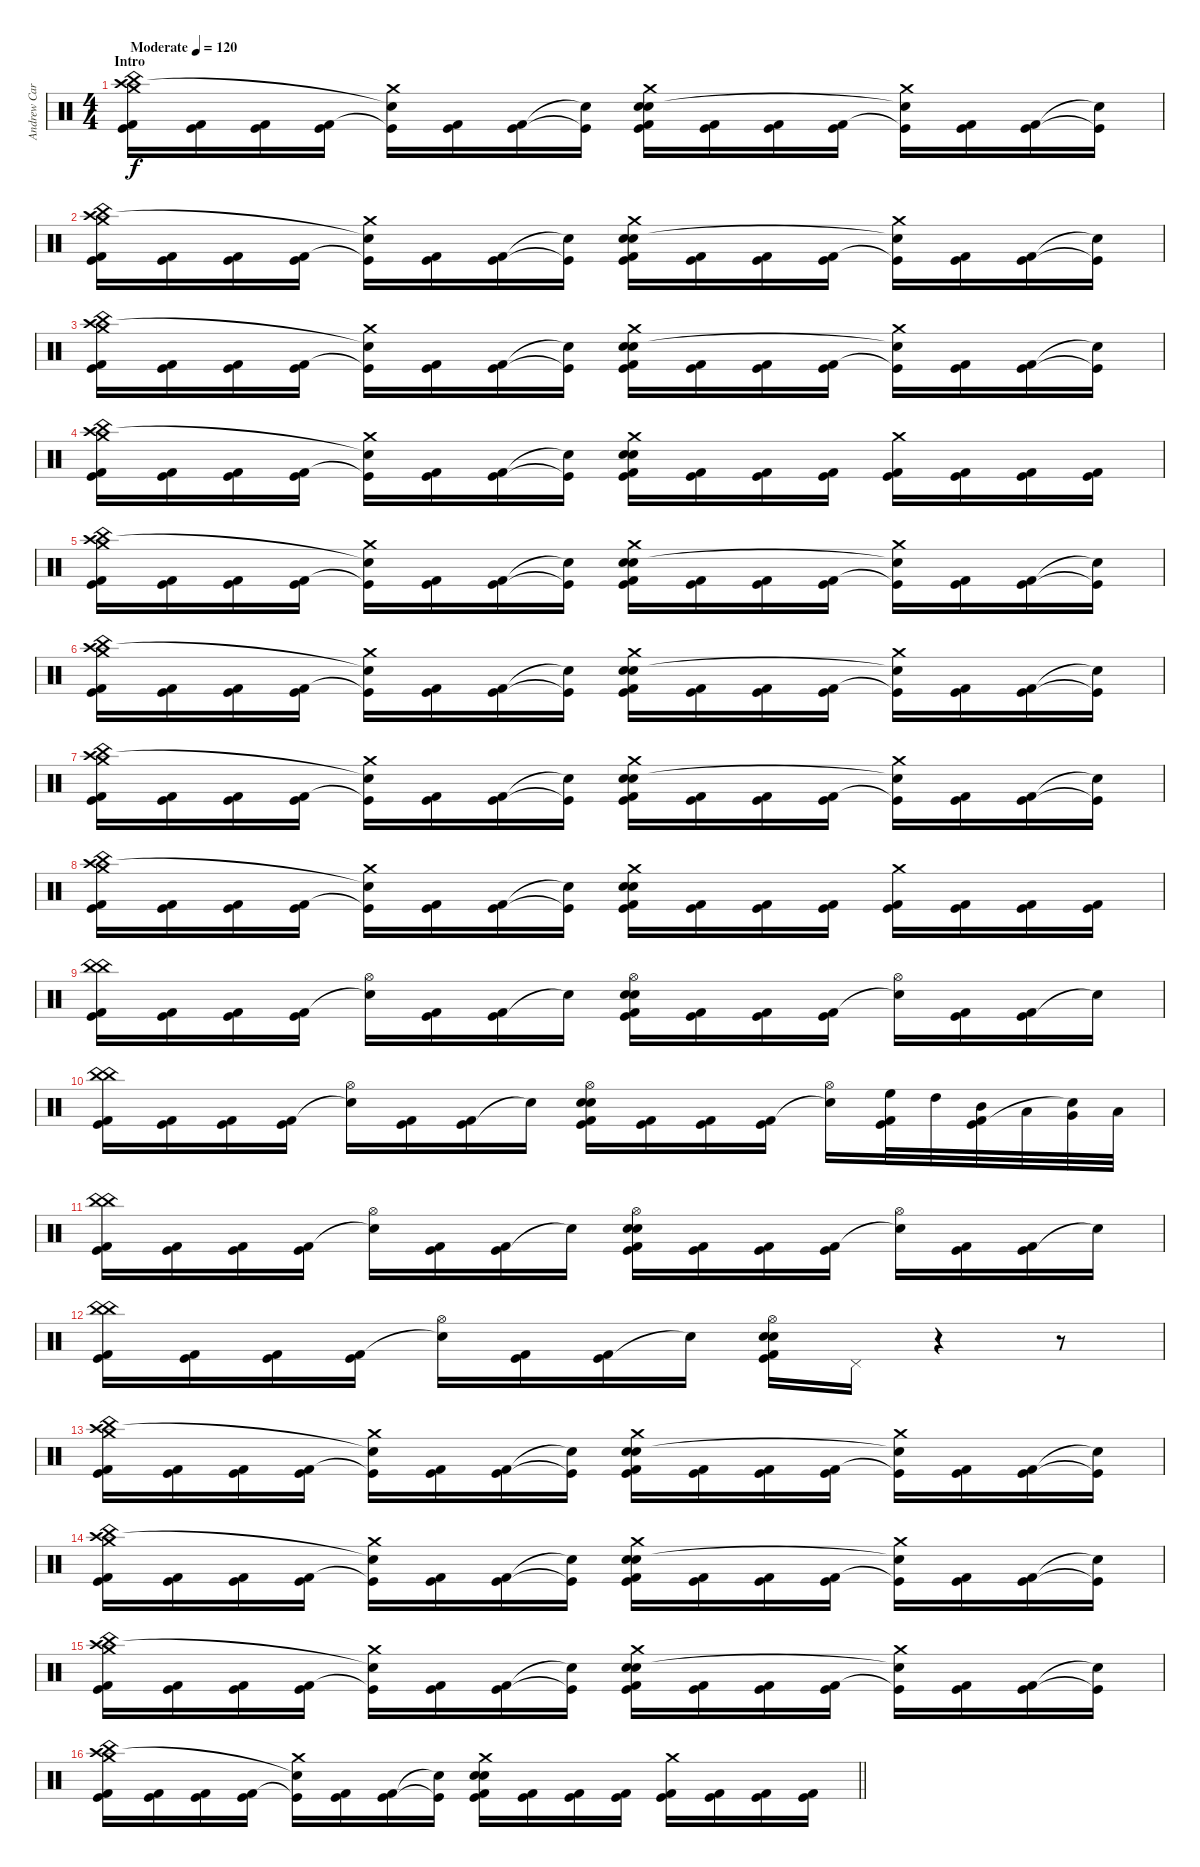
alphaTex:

\track ("Andrew Carlston" "Andrew Car") {instrument percussion}
\staff {score}
\articulation defaults
\ts (4 4)
\section ("" "Intro")
\tempo (120 "Moderate")
\clef neutral
\ks c
("China (hit)" "Crash medium (hit)" "Crash high (hit)" "Kick (hit)" "Kick (hit) 2").16{dy f} ("Kick (hit)" "Kick (hit) 2").16 ("Kick (hit)" "Kick (hit) 2").16 ("Kick (hit)" "Kick (hit) 2").16 ("Crash medium (hit)" "Kick (hit)"{t} "Snare (hit)"{t}).16 ("Kick (hit)" "Kick (hit) 2").16 ("Kick (hit)" "Kick (hit) 2").16 ("Kick (hit)"{t} "Snare (hit)"{t}).16 ("Crash medium (hit)" "Electric Snare (hit)" "Snare (hit) 2" "Kick (hit)" "Kick (hit) 2").16 ("Kick (hit)" "Kick (hit) 2").16 ("Kick (hit)" "Kick (hit) 2").16 ("Kick (hit)" "Kick (hit) 2").16 ("Crash medium (hit)" "Kick (hit)"{t} "Snare (hit)"{t}).16 ("Kick (hit)" "Kick (hit) 2").16 ("Kick (hit)" "Kick (hit) 2").16 ("Kick (hit)"{t} "Snare (hit)"{t}).16 |
("China (hit)" "Crash medium (hit)" "Crash high (hit)" "Kick (hit)" "Kick (hit) 2").16 ("Kick (hit)" "Kick (hit) 2").16 ("Kick (hit)" "Kick (hit) 2").16 ("Kick (hit)" "Kick (hit) 2").16 ("Crash medium (hit)" "Kick (hit)"{t} "Snare (hit)"{t}).16 ("Kick (hit)" "Kick (hit) 2").16 ("Kick (hit)" "Kick (hit) 2").16 ("Kick (hit)"{t} "Snare (hit)"{t}).16 ("Crash medium (hit)" "Electric Snare (hit)" "Snare (hit) 2" "Kick (hit)" "Kick (hit) 2").16 ("Kick (hit)" "Kick (hit) 2").16 ("Kick (hit)" "Kick (hit) 2").16 ("Kick (hit)" "Kick (hit) 2").16 ("Crash medium (hit)" "Kick (hit)"{t} "Snare (hit)"{t}).16 ("Kick (hit)" "Kick (hit) 2").16 ("Kick (hit)" "Kick (hit) 2").16 ("Kick (hit)"{t} "Snare (hit)"{t}).16 |
("China (hit)" "Crash medium (hit)" "Crash high (hit)" "Kick (hit)" "Kick (hit) 2").16 ("Kick (hit)" "Kick (hit) 2").16 ("Kick (hit)" "Kick (hit) 2").16 ("Kick (hit)" "Kick (hit) 2").16 ("Crash medium (hit)" "Kick (hit)"{t} "Snare (hit)"{t}).16 ("Kick (hit)" "Kick (hit) 2").16 ("Kick (hit)" "Kick (hit) 2").16 ("Kick (hit)"{t} "Snare (hit)"{t}).16 ("Crash medium (hit)" "Electric Snare (hit)" "Snare (hit) 2" "Kick (hit)" "Kick (hit) 2").16 ("Kick (hit)" "Kick (hit) 2").16 ("Kick (hit)" "Kick (hit) 2").16 ("Kick (hit)" "Kick (hit) 2").16 ("Crash medium (hit)" "Kick (hit)"{t} "Snare (hit)"{t}).16 ("Kick (hit)" "Kick (hit) 2").16 ("Kick (hit)" "Kick (hit) 2").16 ("Kick (hit)"{t} "Snare (hit)"{t}).16 |
("China (hit)" "Crash medium (hit)" "Crash high (hit)" "Kick (hit)" "Kick (hit) 2").16 ("Kick (hit)" "Kick (hit) 2").16 ("Kick (hit)" "Kick (hit) 2").16 ("Kick (hit)" "Kick (hit) 2").16 ("Crash medium (hit)" "Kick (hit)"{t} "Snare (hit)"{t}).16 ("Kick (hit)" "Kick (hit) 2").16 ("Kick (hit)" "Kick (hit) 2").16 ("Kick (hit)"{t} "Snare (hit)"{t}).16 ("Crash medium (hit)" "Electric Snare (hit)" "Snare (hit) 2" "Kick (hit)" "Kick (hit) 2").16 ("Kick (hit)" "Kick (hit) 2").16 ("Kick (hit)" "Kick (hit) 2").16 ("Kick (hit)" "Kick (hit) 2").16 ("Crash medium (hit)" "Kick (hit)" "Kick (hit) 2").16 ("Kick (hit)" "Kick (hit) 2").16 ("Kick (hit)" "Kick (hit) 2").16 ("Kick (hit)" "Kick (hit) 2").16 |
("China (hit)" "Crash medium (hit)" "Crash high (hit)" "Kick (hit)" "Kick (hit) 2").16 ("Kick (hit)" "Kick (hit) 2").16 ("Kick (hit)" "Kick (hit) 2").16 ("Kick (hit)" "Kick (hit) 2").16 ("Crash medium (hit)" "Kick (hit)"{t} "Snare (hit)"{t}).16 ("Kick (hit)" "Kick (hit) 2").16 ("Kick (hit)" "Kick (hit) 2").16 ("Kick (hit)"{t} "Snare (hit)"{t}).16 ("Crash medium (hit)" "Electric Snare (hit)" "Snare (hit) 2" "Kick (hit)" "Kick (hit) 2").16 ("Kick (hit)" "Kick (hit) 2").16 ("Kick (hit)" "Kick (hit) 2").16 ("Kick (hit)" "Kick (hit) 2").16 ("Crash medium (hit)" "Kick (hit)"{t} "Snare (hit)"{t}).16 ("Kick (hit)" "Kick (hit) 2").16 ("Kick (hit)" "Kick (hit) 2").16 ("Kick (hit)"{t} "Snare (hit)"{t}).16 |
("China (hit)" "Crash medium (hit)" "Crash high (hit)" "Kick (hit)" "Kick (hit) 2").16 ("Kick (hit)" "Kick (hit) 2").16 ("Kick (hit)" "Kick (hit) 2").16 ("Kick (hit)" "Kick (hit) 2").16 ("Crash medium (hit)" "Kick (hit)"{t} "Snare (hit)"{t}).16 ("Kick (hit)" "Kick (hit) 2").16 ("Kick (hit)" "Kick (hit) 2").16 ("Kick (hit)"{t} "Snare (hit)"{t}).16 ("Crash medium (hit)" "Electric Snare (hit)" "Snare (hit) 2" "Kick (hit)" "Kick (hit) 2").16 ("Kick (hit)" "Kick (hit) 2").16 ("Kick (hit)" "Kick (hit) 2").16 ("Kick (hit)" "Kick (hit) 2").16 ("Crash medium (hit)" "Kick (hit)"{t} "Snare (hit)"{t}).16 ("Kick (hit)" "Kick (hit) 2").16 ("Kick (hit)" "Kick (hit) 2").16 ("Kick (hit)"{t} "Snare (hit)"{t}).16 |
("China (hit)" "Crash medium (hit)" "Crash high (hit)" "Kick (hit)" "Kick (hit) 2").16 ("Kick (hit)" "Kick (hit) 2").16 ("Kick (hit)" "Kick (hit) 2").16 ("Kick (hit)" "Kick (hit) 2").16 ("Crash medium (hit)" "Kick (hit)"{t} "Snare (hit)"{t}).16 ("Kick (hit)" "Kick (hit) 2").16 ("Kick (hit)" "Kick (hit) 2").16 ("Kick (hit)"{t} "Snare (hit)"{t}).16 ("Crash medium (hit)" "Electric Snare (hit)" "Snare (hit) 2" "Kick (hit)" "Kick (hit) 2").16 ("Kick (hit)" "Kick (hit) 2").16 ("Kick (hit)" "Kick (hit) 2").16 ("Kick (hit)" "Kick (hit) 2").16 ("Crash medium (hit)" "Kick (hit)"{t} "Snare (hit)"{t}).16 ("Kick (hit)" "Kick (hit) 2").16 ("Kick (hit)" "Kick (hit) 2").16 ("Kick (hit)"{t} "Snare (hit)"{t}).16 |
("China (hit)" "Crash medium (hit)" "Crash high (hit)" "Kick (hit)" "Kick (hit) 2").16 ("Kick (hit)" "Kick (hit) 2").16 ("Kick (hit)" "Kick (hit) 2").16 ("Kick (hit)" "Kick (hit) 2").16 ("Crash medium (hit)" "Kick (hit)"{t} "Snare (hit)"{t}).16 ("Kick (hit)" "Kick (hit) 2").16 ("Kick (hit)" "Kick (hit) 2").16 ("Kick (hit)"{t} "Snare (hit)"{t}).16 ("Crash medium (hit)" "Electric Snare (hit)" "Snare (hit) 2" "Kick (hit)" "Kick (hit) 2").16 ("Kick (hit)" "Kick (hit) 2").16 ("Kick (hit)" "Kick (hit) 2").16 ("Kick (hit)" "Kick (hit) 2").16 ("Crash medium (hit)" "Kick (hit)" "Kick (hit) 2").16 ("Kick (hit)" "Kick (hit) 2").16 ("Kick (hit)" "Kick (hit) 2").16 ("Kick (hit)" "Kick (hit) 2").16 |
("China (hit)" "China (hit)" "Kick (hit)" "Kick (hit) 2").16 ("Kick (hit)" "Kick (hit) 2").16 ("Kick (hit)" "Kick (hit) 2").16 ("Kick (hit)" "Kick (hit) 2").16 ("Hi-Hat (open)" "Snare (hit)"{t}).16 ("Kick (hit)" "Kick (hit) 2").16 ("Kick (hit)" "Kick (hit) 2").16 "Snare (hit)"{t}.16 ("Hi-Hat (open)" "Electric Snare (hit)" "Snare (hit) 2" "Kick (hit)" "Kick (hit) 2").16 ("Kick (hit)" "Kick (hit) 2").16 ("Kick (hit)" "Kick (hit) 2").16 ("Kick (hit)" "Kick (hit) 2").16 ("Hi-Hat (open)" "Snare (hit)"{t}).16 ("Kick (hit)" "Kick (hit) 2").16 ("Kick (hit)" "Kick (hit) 2").16 "Snare (hit)"{t}.16 |
("China (hit)" "China (hit)" "Kick (hit)" "Kick (hit) 2").16 ("Kick (hit)" "Kick (hit) 2").16 ("Kick (hit)" "Kick (hit) 2").16 ("Kick (hit)" "Kick (hit) 2").16 ("Hi-Hat (open)" "Snare (hit)"{t}).16 ("Kick (hit)" "Kick (hit) 2").16 ("Kick (hit)" "Kick (hit) 2").16 "Snare (hit)"{t}.16 ("Hi-Hat (open)" "Electric Snare (hit)" "Snare (hit) 2" "Kick (hit)" "Kick (hit) 2").16 ("Kick (hit)" "Kick (hit) 2").16 ("Kick (hit)" "Kick (hit) 2").16 ("Kick (hit)" "Kick (hit) 2").16 ("Hi-Hat (open)" "Snare (hit)"{t}).16 ("High Floor Tom (hit)" "Kick (hit)" "Kick (hit) 2").32 "High Tom (hit)".32 ("Mid Tom (hit)" "Kick (hit)" "Kick (hit) 2").32 "Low Tom (hit)".32 ("Very Low Tom (hit)" "Snare (hit)"{t}).32 "Low Floor Tom (hit)".32 |
("China (hit)" "China (hit)" "Kick (hit)" "Kick (hit) 2").16 ("Kick (hit)" "Kick (hit) 2").16 ("Kick (hit)" "Kick (hit) 2").16 ("Kick (hit)" "Kick (hit) 2").16 ("Hi-Hat (open)" "Snare (hit)"{t}).16 ("Kick (hit)" "Kick (hit) 2").16 ("Kick (hit)" "Kick (hit) 2").16 "Snare (hit)"{t}.16 ("Hi-Hat (open)" "Electric Snare (hit)" "Snare (hit) 2" "Kick (hit)" "Kick (hit) 2").16 ("Kick (hit)" "Kick (hit) 2").16 ("Kick (hit)" "Kick (hit) 2").16 ("Kick (hit)" "Kick (hit) 2").16 ("Hi-Hat (open)" "Snare (hit)"{t}).16 ("Kick (hit)" "Kick (hit) 2").16 ("Kick (hit)" "Kick (hit) 2").16 "Snare (hit)"{t}.16 |
("China (hit)" "China (hit)" "Kick (hit)" "Kick (hit) 2").16 ("Kick (hit)" "Kick (hit) 2").16 ("Kick (hit)" "Kick (hit) 2").16 ("Kick (hit)" "Kick (hit) 2").16 ("Hi-Hat (open)" "Snare (hit)"{t}).16 ("Kick (hit)" "Kick (hit) 2").16 ("Kick (hit)" "Kick (hit) 2").16 "Snare (hit)"{t}.16 ("Hi-Hat (open)" "Electric Snare (hit)" "Snare (hit) 2" "Kick (hit)" "Kick (hit) 2").16 "Pedal Hi-Hat (hit)".16 r.4 r.8 |
("China (hit)" "Crash medium (hit)" "Crash high (hit)" "Kick (hit)" "Kick (hit) 2").16 ("Kick (hit)" "Kick (hit) 2").16 ("Kick (hit)" "Kick (hit) 2").16 ("Kick (hit)" "Kick (hit) 2").16 ("Crash medium (hit)" "Kick (hit)"{t} "Snare (hit)"{t}).16 ("Kick (hit)" "Kick (hit) 2").16 ("Kick (hit)" "Kick (hit) 2").16 ("Kick (hit)"{t} "Snare (hit)"{t}).16 ("Crash medium (hit)" "Electric Snare (hit)" "Snare (hit) 2" "Kick (hit)" "Kick (hit) 2").16 ("Kick (hit)" "Kick (hit) 2").16 ("Kick (hit)" "Kick (hit) 2").16 ("Kick (hit)" "Kick (hit) 2").16 ("Crash medium (hit)" "Kick (hit)"{t} "Snare (hit)"{t}).16 ("Kick (hit)" "Kick (hit) 2").16 ("Kick (hit)" "Kick (hit) 2").16 ("Kick (hit)"{t} "Snare (hit)"{t}).16 |
("China (hit)" "Crash medium (hit)" "Crash high (hit)" "Kick (hit)" "Kick (hit) 2").16 ("Kick (hit)" "Kick (hit) 2").16 ("Kick (hit)" "Kick (hit) 2").16 ("Kick (hit)" "Kick (hit) 2").16 ("Crash medium (hit)" "Kick (hit)"{t} "Snare (hit)"{t}).16 ("Kick (hit)" "Kick (hit) 2").16 ("Kick (hit)" "Kick (hit) 2").16 ("Kick (hit)"{t} "Snare (hit)"{t}).16 ("Crash medium (hit)" "Electric Snare (hit)" "Snare (hit) 2" "Kick (hit)" "Kick (hit) 2").16 ("Kick (hit)" "Kick (hit) 2").16 ("Kick (hit)" "Kick (hit) 2").16 ("Kick (hit)" "Kick (hit) 2").16 ("Crash medium (hit)" "Kick (hit)"{t} "Snare (hit)"{t}).16 ("Kick (hit)" "Kick (hit) 2").16 ("Kick (hit)" "Kick (hit) 2").16 ("Kick (hit)"{t} "Snare (hit)"{t}).16 |
("China (hit)" "Crash medium (hit)" "Crash high (hit)" "Kick (hit)" "Kick (hit) 2").16 ("Kick (hit)" "Kick (hit) 2").16 ("Kick (hit)" "Kick (hit) 2").16 ("Kick (hit)" "Kick (hit) 2").16 ("Crash medium (hit)" "Kick (hit)"{t} "Snare (hit)"{t}).16 ("Kick (hit)" "Kick (hit) 2").16 ("Kick (hit)" "Kick (hit) 2").16 ("Kick (hit)"{t} "Snare (hit)"{t}).16 ("Crash medium (hit)" "Electric Snare (hit)" "Snare (hit) 2" "Kick (hit)" "Kick (hit) 2").16 ("Kick (hit)" "Kick (hit) 2").16 ("Kick (hit)" "Kick (hit) 2").16 ("Kick (hit)" "Kick (hit) 2").16 ("Crash medium (hit)" "Kick (hit)"{t} "Snare (hit)"{t}).16 ("Kick (hit)" "Kick (hit) 2").16 ("Kick (hit)" "Kick (hit) 2").16 ("Kick (hit)"{t} "Snare (hit)"{t}).16 |
\barLineRight lightlight
("China (hit)" "Crash medium (hit)" "Crash high (hit)" "Kick (hit)" "Kick (hit) 2").16 ("Kick (hit)" "Kick (hit) 2").16 ("Kick (hit)" "Kick (hit) 2").16 ("Kick (hit)" "Kick (hit) 2").16 ("Crash medium (hit)" "Kick (hit)"{t} "Snare (hit)"{t}).16 ("Kick (hit)" "Kick (hit) 2").16 ("Kick (hit)" "Kick (hit) 2").16 ("Kick (hit)"{t} "Snare (hit)"{t}).16 ("Crash medium (hit)" "Electric Snare (hit)" "Snare (hit) 2" "Kick (hit)" "Kick (hit) 2").16 ("Kick (hit)" "Kick (hit) 2").16 ("Kick (hit)" "Kick (hit) 2").16 ("Kick (hit)" "Kick (hit) 2").16 ("Crash medium (hit)" "Kick (hit)" "Kick (hit) 2").16 ("Kick (hit)" "Kick (hit) 2").16 ("Kick (hit)" "Kick (hit) 2").16 ("Kick (hit)" "Kick (hit) 2").16
